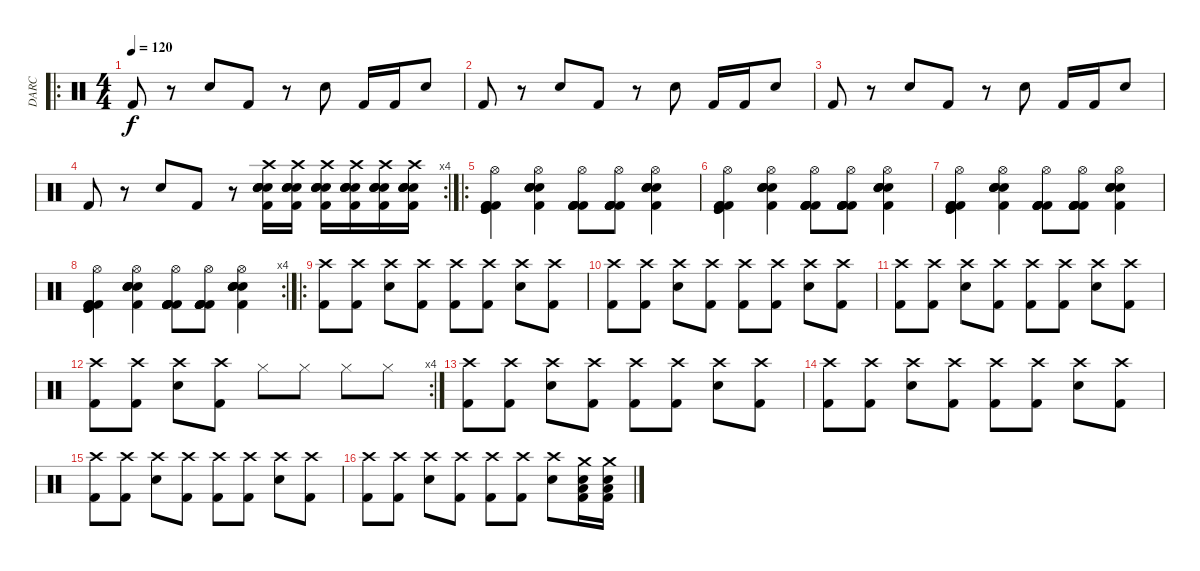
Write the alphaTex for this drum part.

\track ("DARC" "DARC") {instrument percussion}
\staff {score}
\articulation defaults
\ro
\ts (4 4)
\tempo 120
\clef neutral
\ks c "Kick (hit) 2".8{dy f}
r.8 "Electric Snare (hit)".8 "Kick (hit) 2".8 r.8 "Electric Snare (hit)".8 "Kick (hit) 2".16 "Kick (hit) 2".16 "Electric Snare (hit)".8 |
"Kick (hit) 2".8 r.8 "Electric Snare (hit)".8 "Kick (hit) 2".8 r.8 "Electric Snare (hit)".8 "Kick (hit) 2".16 "Kick (hit) 2".16 "Electric Snare (hit)".8 |
"Kick (hit) 2".8 r.8 "Electric Snare (hit)".8 "Kick (hit) 2".8 r.8 "Electric Snare (hit)".8 "Kick (hit) 2".16 "Kick (hit) 2".16 "Electric Snare (hit)".8 |
\rc 4 "Kick (hit) 2".8
r.8 "Electric Snare (hit)".8 "Kick (hit) 2".8 r.8 ("Crash high (hit)" "Kick (hit) 2" "Electric Snare (hit)" "Electric Snare (hit)" "Electric Snare (hit)" "Electric Snare (hit)").16 ("Crash high (hit)" "Kick (hit) 2" "Electric Snare (hit)" "Electric Snare (hit)" "Electric Snare (hit)" "Electric Snare (hit)").16 ("Crash high (hit)" "Kick (hit) 2" "Electric Snare (hit)" "Electric Snare (hit)" "Electric Snare (hit)" "Electric Snare (hit)").16 ("Crash high (hit)" "Kick (hit) 2" "Electric Snare (hit)" "Electric Snare (hit)" "Electric Snare (hit)" "Electric Snare (hit)").16 ("Crash high (hit)" "Kick (hit) 2" "Electric Snare (hit)" "Electric Snare (hit)" "Electric Snare (hit)" "Electric Snare (hit)").16 ("Crash high (hit)" "Kick (hit) 2" "Electric Snare (hit)" "Electric Snare (hit)" "Electric Snare (hit)" "Electric Snare (hit)").16 |
\ro
("Kick (hit)" "Hi-Hat (open)" "Kick (hit)" "Kick (hit) 2" "Kick (hit) 2" "Kick (hit) 2").4 ("Kick (hit) 2" "Hi-Hat (open)" "Electric Snare (hit)" "Electric Snare (hit)" "Electric Snare (hit)" "Electric Snare (hit)").4 ("Kick (hit) 2" "Hi-Hat (open)" "Kick (hit) 2" "Kick (hit) 2" "Kick (hit) 2" "Kick (hit) 2").8 ("Kick (hit) 2" "Hi-Hat (open)" "Kick (hit) 2" "Kick (hit) 2" "Kick (hit) 2" "Kick (hit) 2").8 ("Kick (hit) 2" "Hi-Hat (open)" "Electric Snare (hit)" "Electric Snare (hit)" "Electric Snare (hit)" "Electric Snare (hit)").4 |
("Kick (hit)" "Hi-Hat (open)" "Kick (hit)" "Kick (hit) 2" "Kick (hit) 2" "Kick (hit) 2").4 ("Kick (hit) 2" "Hi-Hat (open)" "Electric Snare (hit)" "Electric Snare (hit)" "Electric Snare (hit)" "Electric Snare (hit)").4 ("Kick (hit) 2" "Hi-Hat (open)" "Kick (hit) 2" "Kick (hit) 2" "Kick (hit) 2" "Kick (hit) 2").8 ("Kick (hit) 2" "Hi-Hat (open)" "Kick (hit) 2" "Kick (hit) 2" "Kick (hit) 2" "Kick (hit) 2").8 ("Kick (hit) 2" "Hi-Hat (open)" "Electric Snare (hit)" "Electric Snare (hit)" "Electric Snare (hit)" "Electric Snare (hit)").4 |
("Kick (hit)" "Hi-Hat (open)" "Kick (hit)" "Kick (hit) 2" "Kick (hit) 2" "Kick (hit) 2").4 ("Kick (hit) 2" "Hi-Hat (open)" "Electric Snare (hit)" "Electric Snare (hit)" "Electric Snare (hit)" "Electric Snare (hit)").4 ("Kick (hit) 2" "Hi-Hat (open)" "Kick (hit) 2" "Kick (hit) 2" "Kick (hit) 2" "Kick (hit) 2").8 ("Kick (hit) 2" "Hi-Hat (open)" "Kick (hit) 2" "Kick (hit) 2" "Kick (hit) 2" "Kick (hit) 2").8 ("Kick (hit) 2" "Hi-Hat (open)" "Electric Snare (hit)" "Electric Snare (hit)" "Electric Snare (hit)" "Electric Snare (hit)").4 |
\rc 4
("Kick (hit)" "Hi-Hat (open)" "Kick (hit)" "Kick (hit) 2" "Kick (hit) 2" "Kick (hit) 2").4 ("Kick (hit) 2" "Hi-Hat (open)" "Electric Snare (hit)" "Electric Snare (hit)" "Electric Snare (hit)" "Electric Snare (hit)").4 ("Kick (hit) 2" "Hi-Hat (open)" "Kick (hit) 2" "Kick (hit) 2" "Kick (hit) 2" "Kick (hit) 2").8 ("Kick (hit) 2" "Hi-Hat (open)" "Kick (hit) 2" "Kick (hit) 2" "Kick (hit) 2" "Kick (hit) 2").8 ("Kick (hit) 2" "Hi-Hat (open)" "Electric Snare (hit)" "Electric Snare (hit)" "Electric Snare (hit)" "Electric Snare (hit)").4 |
\ro
("Crash high (hit)" "Kick (hit) 2").8 ("Crash high (hit)" "Kick (hit) 2").8 ("Crash high (hit)" "Snare (hit) 2").8 ("Crash high (hit)" "Kick (hit) 2").8 ("Crash high (hit)" "Kick (hit) 2").8 ("Crash high (hit)" "Kick (hit) 2").8 ("Crash high (hit)" "Snare (hit) 2").8 ("Crash high (hit)" "Kick (hit) 2").8 |
("Crash high (hit)" "Kick (hit) 2").8 ("Crash high (hit)" "Kick (hit) 2").8 ("Crash high (hit)" "Snare (hit) 2").8 ("Crash high (hit)" "Kick (hit) 2").8 ("Crash high (hit)" "Kick (hit) 2").8 ("Crash high (hit)" "Kick (hit) 2").8 ("Crash high (hit)" "Snare (hit) 2").8 ("Crash high (hit)" "Kick (hit) 2").8 |
("Crash high (hit)" "Kick (hit) 2").8 ("Crash high (hit)" "Kick (hit) 2").8 ("Crash high (hit)" "Snare (hit) 2").8 ("Crash high (hit)" "Kick (hit) 2").8 ("Crash high (hit)" "Kick (hit) 2").8 ("Crash high (hit)" "Kick (hit) 2").8 ("Crash high (hit)" "Snare (hit) 2").8 ("Crash high (hit)" "Kick (hit) 2").8 |
\rc 4
("Crash high (hit)" "Kick (hit) 2").8 ("Crash high (hit)" "Kick (hit) 2").8 ("Crash high (hit)" "Snare (hit) 2").8 ("Crash high (hit)" "Kick (hit) 2").8 "Hi-Hat (closed)".8 "Hi-Hat (closed)".8 "Hi-Hat (closed)".8 "Hi-Hat (closed)".8 |
("Crash high (hit)" "Kick (hit) 2").8 ("Crash high (hit)" "Kick (hit) 2").8 ("Crash high (hit)" "Snare (hit) 2").8 ("Crash high (hit)" "Kick (hit) 2").8 ("Crash high (hit)" "Kick (hit) 2").8 ("Crash high (hit)" "Kick (hit) 2").8 ("Crash high (hit)" "Snare (hit) 2").8 ("Crash high (hit)" "Kick (hit) 2").8 |
("Crash high (hit)" "Kick (hit) 2").8 ("Crash high (hit)" "Kick (hit) 2").8 ("Crash high (hit)" "Snare (hit) 2").8 ("Crash high (hit)" "Kick (hit) 2").8 ("Crash high (hit)" "Kick (hit) 2").8 ("Crash high (hit)" "Kick (hit) 2").8 ("Crash high (hit)" "Snare (hit) 2").8 ("Crash high (hit)" "Kick (hit) 2").8 |
("Crash high (hit)" "Kick (hit) 2").8 ("Crash high (hit)" "Kick (hit) 2").8 ("Crash high (hit)" "Snare (hit) 2").8 ("Crash high (hit)" "Kick (hit) 2").8 ("Crash high (hit)" "Kick (hit) 2").8 ("Crash high (hit)" "Kick (hit) 2").8 ("Crash high (hit)" "Snare (hit) 2").8 ("Crash high (hit)" "Kick (hit) 2").8 |
("Crash high (hit)" "Kick (hit) 2").8 ("Crash high (hit)" "Kick (hit) 2").8 ("Crash high (hit)" "Snare (hit) 2").8 ("Crash high (hit)" "Kick (hit) 2").8 ("Crash high (hit)" "Kick (hit) 2").8 ("Crash high (hit)" "Kick (hit) 2").8 ("Crash high (hit)" "Snare (hit) 2").8 ("Crash medium (hit)" "Kick (hit) 2" "Low Floor Tom (hit)" "Electric Snare (hit)").16 ("Crash medium (hit)" "Kick (hit) 2" "Low Floor Tom (hit)" "Electric Snare (hit)").16
